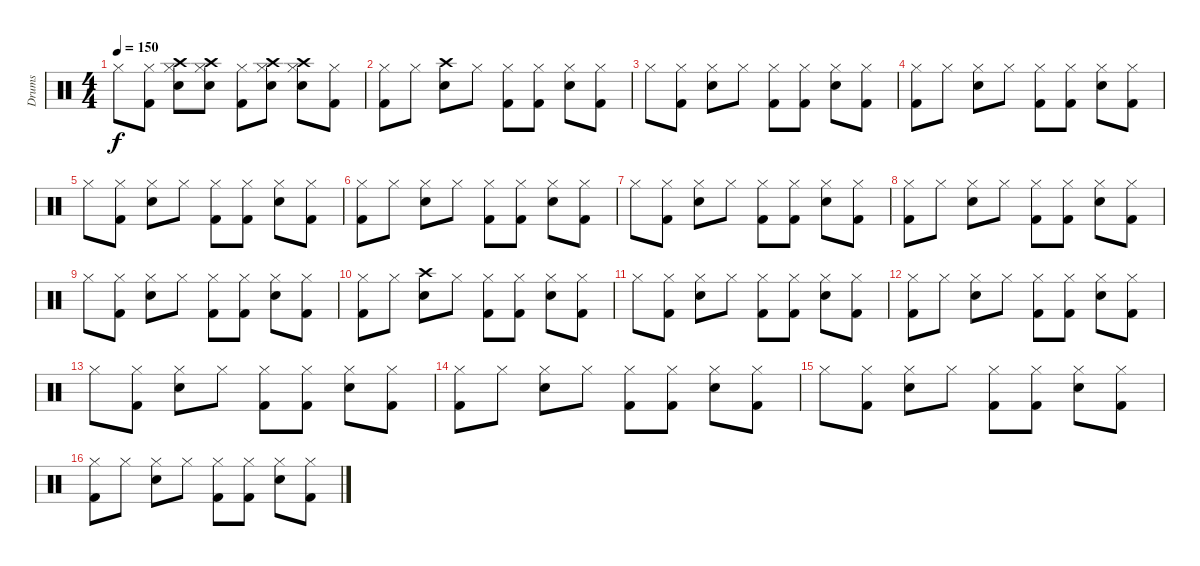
\track ("Drums" "Drums") {instrument percussion}
\staff {score}
\articulation defaults
\ts (4 4)
\tempo 150
\clef neutral
\ks c "Hi-Hat (closed)".8{dy f}
("Kick (hit) 2" "Hi-Hat (closed)").8 ("Crash high (hit)" "Snare (hit) 2" "Hi-Hat (closed)").8 ("Crash high (hit)" "Snare (hit) 2" "Hi-Hat (closed)").8 ("Kick (hit) 2" "Hi-Hat (closed)").8 ("Crash high (hit)" "Snare (hit) 2" "Hi-Hat (closed)").8 ("Crash high (hit)" "Snare (hit) 2" "Hi-Hat (closed)").8 ("Kick (hit) 2" "Hi-Hat (closed)").8 |
("Kick (hit) 2" "Hi-Hat (closed)").8 "Hi-Hat (closed)".8 ("Snare (hit) 2" "Crash high (hit)").8 "Hi-Hat (closed)".8 ("Kick (hit) 2" "Hi-Hat (closed)").8 ("Kick (hit) 2" "Hi-Hat (closed)").8 ("Snare (hit) 2" "Hi-Hat (closed)").8 ("Kick (hit) 2" "Hi-Hat (closed)").8 |
"Hi-Hat (closed)".8 ("Kick (hit) 2" "Hi-Hat (closed)").8 ("Snare (hit) 2" "Hi-Hat (closed)").8 "Hi-Hat (closed)".8 ("Kick (hit) 2" "Hi-Hat (closed)").8 ("Kick (hit) 2" "Hi-Hat (closed)").8 ("Snare (hit) 2" "Hi-Hat (closed)").8 ("Kick (hit) 2" "Hi-Hat (closed)").8 |
("Kick (hit) 2" "Hi-Hat (closed)").8 "Hi-Hat (closed)".8 ("Snare (hit) 2" "Hi-Hat (closed)").8 "Hi-Hat (closed)".8 ("Kick (hit) 2" "Hi-Hat (closed)").8 ("Kick (hit) 2" "Hi-Hat (closed)").8 ("Snare (hit) 2" "Hi-Hat (closed)").8 ("Kick (hit) 2" "Hi-Hat (closed)").8 |
"Hi-Hat (closed)".8 ("Kick (hit) 2" "Hi-Hat (closed)").8 ("Snare (hit) 2" "Hi-Hat (closed)").8 "Hi-Hat (closed)".8 ("Kick (hit) 2" "Hi-Hat (closed)").8 ("Kick (hit) 2" "Hi-Hat (closed)").8 ("Snare (hit) 2" "Hi-Hat (closed)").8 ("Kick (hit) 2" "Hi-Hat (closed)").8 |
("Kick (hit) 2" "Hi-Hat (closed)").8 "Hi-Hat (closed)".8 ("Snare (hit) 2" "Hi-Hat (closed)").8 "Hi-Hat (closed)".8 ("Kick (hit) 2" "Hi-Hat (closed)").8 ("Kick (hit) 2" "Hi-Hat (closed)").8 ("Snare (hit) 2" "Hi-Hat (closed)").8 ("Kick (hit) 2" "Hi-Hat (closed)").8 |
"Hi-Hat (closed)".8 ("Kick (hit) 2" "Hi-Hat (closed)").8 ("Snare (hit) 2" "Hi-Hat (closed)").8 "Hi-Hat (closed)".8 ("Kick (hit) 2" "Hi-Hat (closed)").8 ("Kick (hit) 2" "Hi-Hat (closed)").8 ("Snare (hit) 2" "Hi-Hat (closed)").8 ("Kick (hit) 2" "Hi-Hat (closed)").8 |
("Kick (hit) 2" "Hi-Hat (closed)").8 "Hi-Hat (closed)".8 ("Snare (hit) 2" "Hi-Hat (closed)").8 "Hi-Hat (closed)".8 ("Kick (hit) 2" "Hi-Hat (closed)").8 ("Kick (hit) 2" "Hi-Hat (closed)").8 ("Snare (hit) 2" "Hi-Hat (closed)").8 ("Kick (hit) 2" "Hi-Hat (closed)").8 |
"Hi-Hat (closed)".8 ("Kick (hit) 2" "Hi-Hat (closed)").8 ("Snare (hit) 2" "Hi-Hat (closed)").8 "Hi-Hat (closed)".8 ("Kick (hit) 2" "Hi-Hat (closed)").8 ("Kick (hit) 2" "Hi-Hat (closed)").8 ("Snare (hit) 2" "Hi-Hat (closed)").8 ("Kick (hit) 2" "Hi-Hat (closed)").8 |
("Kick (hit) 2" "Hi-Hat (closed)").8 "Hi-Hat (closed)".8 ("Snare (hit) 2" "Crash high (hit)").8 "Hi-Hat (closed)".8 ("Kick (hit) 2" "Hi-Hat (closed)").8 ("Kick (hit) 2" "Hi-Hat (closed)").8 ("Snare (hit) 2" "Hi-Hat (closed)").8 ("Kick (hit) 2" "Hi-Hat (closed)").8 |
"Hi-Hat (closed)".8 ("Kick (hit) 2" "Hi-Hat (closed)").8 ("Snare (hit) 2" "Hi-Hat (closed)").8 "Hi-Hat (closed)".8 ("Kick (hit) 2" "Hi-Hat (closed)").8 ("Kick (hit) 2" "Hi-Hat (closed)").8 ("Snare (hit) 2" "Hi-Hat (closed)").8 ("Kick (hit) 2" "Hi-Hat (closed)").8 |
("Kick (hit) 2" "Hi-Hat (closed)").8 "Hi-Hat (closed)".8 ("Snare (hit) 2" "Hi-Hat (closed)").8 "Hi-Hat (closed)".8 ("Kick (hit) 2" "Hi-Hat (closed)").8 ("Kick (hit) 2" "Hi-Hat (closed)").8 ("Snare (hit) 2" "Hi-Hat (closed)").8 ("Kick (hit) 2" "Hi-Hat (closed)").8 |
"Hi-Hat (closed)".8 ("Kick (hit) 2" "Hi-Hat (closed)").8 ("Snare (hit) 2" "Hi-Hat (closed)").8 "Hi-Hat (closed)".8 ("Kick (hit) 2" "Hi-Hat (closed)").8 ("Kick (hit) 2" "Hi-Hat (closed)").8 ("Snare (hit) 2" "Hi-Hat (closed)").8 ("Kick (hit) 2" "Hi-Hat (closed)").8 |
("Kick (hit) 2" "Hi-Hat (closed)").8 "Hi-Hat (closed)".8 ("Snare (hit) 2" "Hi-Hat (closed)").8 "Hi-Hat (closed)".8 ("Kick (hit) 2" "Hi-Hat (closed)").8 ("Kick (hit) 2" "Hi-Hat (closed)").8 ("Snare (hit) 2" "Hi-Hat (closed)").8 ("Kick (hit) 2" "Hi-Hat (closed)").8 |
"Hi-Hat (closed)".8 ("Kick (hit) 2" "Hi-Hat (closed)").8 ("Snare (hit) 2" "Hi-Hat (closed)").8 "Hi-Hat (closed)".8 ("Kick (hit) 2" "Hi-Hat (closed)").8 ("Kick (hit) 2" "Hi-Hat (closed)").8 ("Snare (hit) 2" "Hi-Hat (closed)").8 ("Kick (hit) 2" "Hi-Hat (closed)").8 |
("Kick (hit) 2" "Hi-Hat (closed)").8 "Hi-Hat (closed)".8 ("Snare (hit) 2" "Hi-Hat (closed)").8 "Hi-Hat (closed)".8 ("Kick (hit) 2" "Hi-Hat (closed)").8 ("Kick (hit) 2" "Hi-Hat (closed)").8 ("Snare (hit) 2" "Hi-Hat (closed)").8 ("Kick (hit) 2" "Hi-Hat (closed)").8
